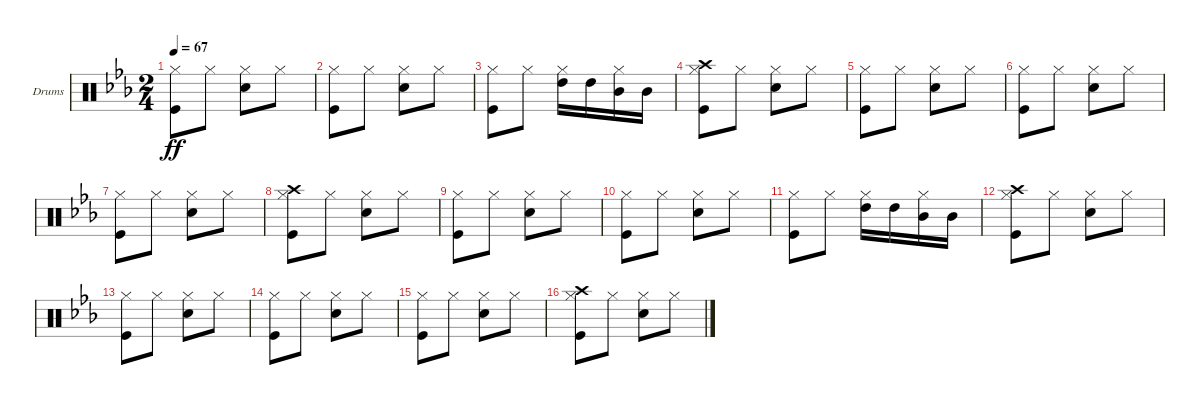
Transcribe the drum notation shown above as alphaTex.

\defaultSystemsLayout 4
\bracketExtendMode groupsimilarinstruments
\firstSystemTrackNameOrientation horizontal
\otherSystemsTrackNameOrientation horizontal
\track ("Drumkit" "Drums") {instrument percussion}
\staff {score}
\articulation defaults
\ts (2 4)
\tempo 67
\clef neutral
\ks cminor
("Hi-Hat (closed)" "Kick (hit)").8{dy ff} "Hi-Hat (closed)".8 ("Hi-Hat (closed)" "Snare (hit) 2").8 "Hi-Hat (closed)".8 |
("Hi-Hat (closed)" "Kick (hit)").8 "Hi-Hat (closed)".8 ("Hi-Hat (closed)" "Snare (hit) 2").8 "Hi-Hat (closed)".8 |
("Hi-Hat (closed)" "Kick (hit)").8 "Hi-Hat (closed)".8 ("Hi-Hat (closed)" "High Tom (hit)").16 "High Tom (hit)".16 ("Mid Tom (hit)" "Hi-Hat (closed)").16 "Mid Tom (hit)".16 |
("Hi-Hat (closed)" "Crash high (hit)" "Kick (hit)").8 "Hi-Hat (closed)".8 ("Hi-Hat (closed)" "Snare (hit) 2").8 "Hi-Hat (closed)".8 |
("Hi-Hat (closed)" "Kick (hit)").8 "Hi-Hat (closed)".8 ("Hi-Hat (closed)" "Snare (hit) 2").8 "Hi-Hat (closed)".8 |
("Hi-Hat (closed)" "Kick (hit)").8 "Hi-Hat (closed)".8 ("Hi-Hat (closed)" "Snare (hit) 2").8 "Hi-Hat (closed)".8 |
("Hi-Hat (closed)" "Kick (hit)").8 "Hi-Hat (closed)".8 ("Hi-Hat (closed)" "Snare (hit) 2").8 "Hi-Hat (closed)".8 |
("Hi-Hat (closed)" "Crash high (hit)" "Kick (hit)").8 "Hi-Hat (closed)".8 ("Hi-Hat (closed)" "Snare (hit) 2").8 "Hi-Hat (closed)".8 |
("Hi-Hat (closed)" "Kick (hit)").8 "Hi-Hat (closed)".8 ("Hi-Hat (closed)" "Snare (hit) 2").8 "Hi-Hat (closed)".8 |
("Hi-Hat (closed)" "Kick (hit)").8 "Hi-Hat (closed)".8 ("Hi-Hat (closed)" "Snare (hit) 2").8 "Hi-Hat (closed)".8 |
("Hi-Hat (closed)" "Kick (hit)").8 "Hi-Hat (closed)".8 ("Hi-Hat (closed)" "High Tom (hit)").16 "High Tom (hit)".16 ("Mid Tom (hit)" "Hi-Hat (closed)").16 "Mid Tom (hit)".16 |
("Hi-Hat (closed)" "Crash high (hit)" "Kick (hit)").8 "Hi-Hat (closed)".8 ("Hi-Hat (closed)" "Snare (hit) 2").8 "Hi-Hat (closed)".8 |
("Hi-Hat (closed)" "Kick (hit)").8 "Hi-Hat (closed)".8 ("Hi-Hat (closed)" "Snare (hit) 2").8 "Hi-Hat (closed)".8 |
("Hi-Hat (closed)" "Kick (hit)").8 "Hi-Hat (closed)".8 ("Hi-Hat (closed)" "Snare (hit) 2").8 "Hi-Hat (closed)".8 |
("Hi-Hat (closed)" "Kick (hit)").8 "Hi-Hat (closed)".8 ("Hi-Hat (closed)" "Snare (hit) 2").8 "Hi-Hat (closed)".8 |
("Hi-Hat (closed)" "Crash high (hit)" "Kick (hit)").8 "Hi-Hat (closed)".8 ("Hi-Hat (closed)" "Snare (hit) 2").8 "Hi-Hat (closed)".8
